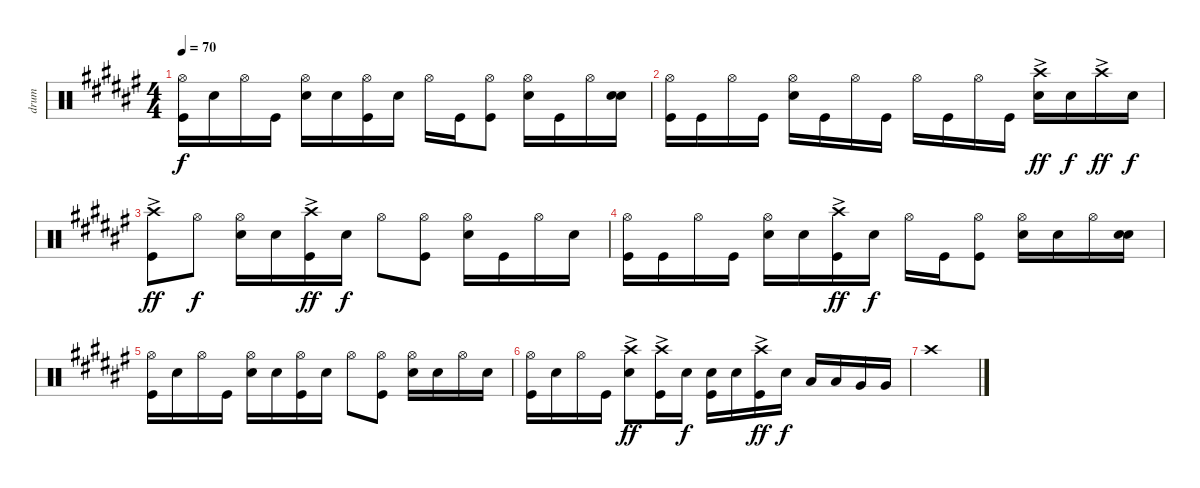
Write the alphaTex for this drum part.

\track ("drum" "drum") {instrument percussion}
\staff {score}
\articulation defaults
\ts (4 4)
\tempo 70
\clef neutral
\ks f#
("Hi-Hat (open)" "Kick (hit)").16{dy f} "Snare (hit) 2".16 "Hi-Hat (open)".16 "Kick (hit)".16 ("Hi-Hat (open)" "Snare (hit) 2").16 "Snare (hit) 2".16 ("Hi-Hat (open)" "Kick (hit)").16 "Snare (hit) 2".16 "Hi-Hat (open)".16 "Kick (hit)".16 ("Hi-Hat (open)" "Kick (hit)").8 ("Hi-Hat (open)" "Snare (hit) 2").16 "Kick (hit)".16 "Hi-Hat (open)".16 ("Snare (hit) 2" "Snare (hit) 2").16 |
("Hi-Hat (open)" "Kick (hit)").16 "Kick (hit)".16 "Hi-Hat (open)".16 "Kick (hit)".16 ("Hi-Hat (open)" "Snare (hit) 2").16 "Kick (hit)".16 "Hi-Hat (open)".16 "Kick (hit)".16 "Hi-Hat (open)".16 "Kick (hit)".16 "Hi-Hat (open)".16 "Kick (hit)".16 ("Crash high (hit)"{ac} "Snare (hit) 2").16{dy ff} "Snare (hit) 2".16{dy f} "Crash high (hit)"{ac}.16{dy ff} "Snare (hit) 2".16{dy f} |
("Crash high (hit)"{ac} "Kick (hit)").8{dy ff} "Hi-Hat (open)".8{dy f} ("Hi-Hat (open)" "Snare (hit) 2").16 "Snare (hit) 2".16 ("Crash high (hit)"{ac} "Kick (hit)").16{dy ff} "Snare (hit) 2".16{dy f} "Hi-Hat (open)".8 ("Hi-Hat (open)" "Kick (hit)").8 ("Hi-Hat (open)" "Snare (hit) 2").16 "Kick (hit)".16 "Hi-Hat (open)".16 "Snare (hit) 2".16 |
("Hi-Hat (open)" "Kick (hit)").16 "Kick (hit)".16 "Hi-Hat (open)".16 "Kick (hit)".16 ("Hi-Hat (open)" "Snare (hit) 2").16 "Snare (hit) 2".16 ("Crash high (hit)"{ac} "Kick (hit)").16{dy ff} "Snare (hit) 2".16{dy f} "Hi-Hat (open)".16 "Kick (hit)".16 ("Hi-Hat (open)" "Kick (hit)").8 ("Hi-Hat (open)" "Snare (hit) 2").16 "Snare (hit) 2".16 "Hi-Hat (open)".16 ("Snare (hit) 2" "Snare (hit) 2").16 |
("Hi-Hat (open)" "Kick (hit)").16 "Snare (hit) 2".16 "Hi-Hat (open)".16 "Kick (hit)".16 ("Hi-Hat (open)" "Snare (hit) 2").16 "Snare (hit) 2".16 ("Hi-Hat (open)" "Kick (hit)").16 "Snare (hit) 2".16 "Hi-Hat (open)".8 ("Hi-Hat (open)" "Kick (hit)").8 ("Hi-Hat (open)" "Snare (hit) 2").16 "Snare (hit) 2".16 "Hi-Hat (open)".16 "Snare (hit) 2".16 |
("Hi-Hat (open)" "Kick (hit)").16 "Snare (hit) 2".16 "Hi-Hat (open)".16 "Kick (hit)".16 ("Crash high (hit)"{ac} "Snare (hit) 2").8{dy ff} ("Crash high (hit)"{ac} "Kick (hit)").16 "Snare (hit) 2".16{dy f} ("Snare (hit) 2" "Kick (hit)").16 "Snare (hit) 2".16 ("Crash high (hit)"{ac} "Kick (hit)").16{dy ff} "Snare (hit) 2".16{dy f} "Low Tom (hit)".16 "Low Tom (hit)".16 "Very Low Tom (hit)".16 "Very Low Tom (hit)".16 |
"Crash high (hit)".1
